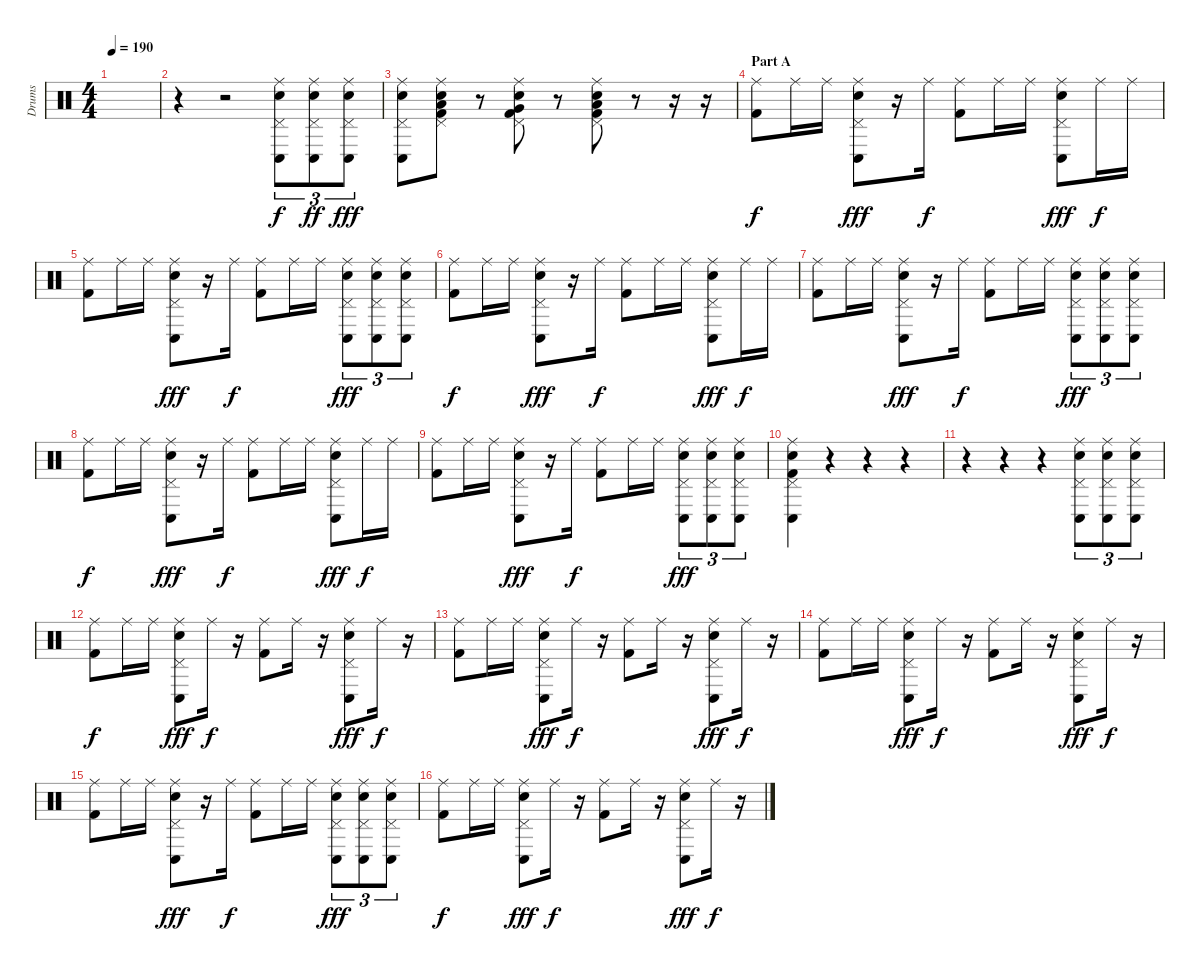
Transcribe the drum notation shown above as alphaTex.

\track ("Drums" "Drums") {instrument percussion}
\staff {score}
\articulation defaults
\ts (4 4)
\tempo 190
\clef neutral
\ks c
|
r.4 r.2 ("Ride (middle)" "Pedal Hi-Hat (hit)" "Conga low (hit)" "Electric Snare (hit)").8{tu (3 2)} ("Ride (middle)" "Pedal Hi-Hat (hit)" "Conga low (hit)" "Electric Snare (hit)").8{tu (3 2) dy ff} ("Ride (middle)" "Pedal Hi-Hat (hit)" "Conga low (hit)" "Electric Snare (hit)").8{tu (3 2) dy fff} |
("Ride (middle)" "Pedal Hi-Hat (hit)" "Conga low (hit)" "Electric Snare (hit)").8 ("Ride (middle)" "Pedal Hi-Hat (hit)" "Low Tom (hit)" "Electric Snare (hit)" "Kick (hit) 2").8 r.8 ("Ride (middle)" "Pedal Hi-Hat (hit)" "Very Low Tom (hit)" "Electric Snare (hit)" "Kick (hit) 2").8 r.8 ("Ride (middle)" "Pedal Hi-Hat (hit)" "Low Floor Tom (hit)" "Electric Snare (hit)" "Kick (hit) 2").8 r.8 r.16 r.16 |
\section ("" "Part A")
("Ride (middle)" "Kick (hit) 2").8{dy f} "Ride (middle)".16 "Ride (middle)".16 ("Ride (middle)" "Pedal Hi-Hat (hit)" "Conga low (hit)" "Electric Snare (hit)").8{dy fff} r.16 "Ride (middle)".16{dy f} ("Ride (middle)" "Kick (hit) 2").8 "Ride (middle)".16 "Ride (middle)".16 ("Ride (middle)" "Pedal Hi-Hat (hit)" "Conga low (hit)" "Electric Snare (hit)").8{dy fff} "Ride (middle)".16{dy f} "Ride (middle)".16 |
("Ride (middle)" "Kick (hit) 2").8 "Ride (middle)".16 "Ride (middle)".16 ("Ride (middle)" "Pedal Hi-Hat (hit)" "Conga low (hit)" "Electric Snare (hit)").8{dy fff} r.16 "Ride (middle)".16{dy f} ("Ride (middle)" "Kick (hit) 2").8 "Ride (middle)".16 "Ride (middle)".16 ("Ride (middle)" "Pedal Hi-Hat (hit)" "Conga low (hit)" "Electric Snare (hit)").8{tu (3 2) dy fff} ("Ride (middle)" "Pedal Hi-Hat (hit)" "Conga low (hit)" "Electric Snare (hit)").8{tu (3 2)} ("Ride (middle)" "Pedal Hi-Hat (hit)" "Conga low (hit)" "Electric Snare (hit)").8{tu (3 2)} |
("Ride (middle)" "Kick (hit) 2").8{dy f} "Ride (middle)".16 "Ride (middle)".16 ("Ride (middle)" "Pedal Hi-Hat (hit)" "Conga low (hit)" "Electric Snare (hit)").8{dy fff} r.16 "Ride (middle)".16{dy f} ("Ride (middle)" "Kick (hit) 2").8 "Ride (middle)".16 "Ride (middle)".16 ("Ride (middle)" "Pedal Hi-Hat (hit)" "Conga low (hit)" "Electric Snare (hit)").8{dy fff} "Ride (middle)".16{dy f} "Ride (middle)".16 |
("Ride (middle)" "Kick (hit) 2").8 "Ride (middle)".16 "Ride (middle)".16 ("Ride (middle)" "Pedal Hi-Hat (hit)" "Conga low (hit)" "Electric Snare (hit)").8{dy fff} r.16 "Ride (middle)".16{dy f} ("Ride (middle)" "Kick (hit) 2").8 "Ride (middle)".16 "Ride (middle)".16 ("Ride (middle)" "Pedal Hi-Hat (hit)" "Conga low (hit)" "Electric Snare (hit)").8{tu (3 2) dy fff} ("Ride (middle)" "Pedal Hi-Hat (hit)" "Conga low (hit)" "Electric Snare (hit)").8{tu (3 2)} ("Ride (middle)" "Pedal Hi-Hat (hit)" "Conga low (hit)" "Electric Snare (hit)").8{tu (3 2)} |
("Ride (middle)" "Kick (hit) 2").8{dy f} "Ride (middle)".16 "Ride (middle)".16 ("Ride (middle)" "Pedal Hi-Hat (hit)" "Conga low (hit)" "Electric Snare (hit)").8{dy fff} r.16 "Ride (middle)".16{dy f} ("Ride (middle)" "Kick (hit) 2").8 "Ride (middle)".16 "Ride (middle)".16 ("Ride (middle)" "Pedal Hi-Hat (hit)" "Conga low (hit)" "Electric Snare (hit)").8{dy fff} "Ride (middle)".16{dy f} "Ride (middle)".16 |
("Ride (middle)" "Kick (hit) 2").8 "Ride (middle)".16 "Ride (middle)".16 ("Ride (middle)" "Pedal Hi-Hat (hit)" "Conga low (hit)" "Electric Snare (hit)").8{dy fff} r.16 "Ride (middle)".16{dy f} ("Ride (middle)" "Kick (hit) 2").8 "Ride (middle)".16 "Ride (middle)".16 ("Ride (middle)" "Pedal Hi-Hat (hit)" "Conga low (hit)" "Electric Snare (hit)").8{tu (3 2) dy fff} ("Ride (middle)" "Pedal Hi-Hat (hit)" "Conga low (hit)" "Electric Snare (hit)").8{tu (3 2)} ("Ride (middle)" "Pedal Hi-Hat (hit)" "Conga low (hit)" "Electric Snare (hit)").8{tu (3 2)} |
("Ride (middle)" "Pedal Hi-Hat (hit)" "Conga low (hit)" "Electric Snare (hit)" "Kick (hit) 2").4 r.4 r.4 r.4 |
r.4 r.4 r.4 ("Ride (middle)" "Pedal Hi-Hat (hit)" "Conga low (hit)" "Electric Snare (hit)").8{tu (3 2)} ("Ride (middle)" "Pedal Hi-Hat (hit)" "Conga low (hit)" "Electric Snare (hit)").8{tu (3 2)} ("Ride (middle)" "Pedal Hi-Hat (hit)" "Conga low (hit)" "Electric Snare (hit)").8{tu (3 2)} |
("Ride (middle)" "Kick (hit) 2").8{dy f} "Ride (middle)".16 "Ride (middle)".16 ("Ride (middle)" "Pedal Hi-Hat (hit)" "Conga low (hit)" "Electric Snare (hit)").8{dy fff} "Ride (middle)".16{dy f} r.16 ("Ride (middle)" "Kick (hit) 2").8 "Ride (middle)".16 r.16 ("Ride (middle)" "Pedal Hi-Hat (hit)" "Conga low (hit)" "Electric Snare (hit)").8{dy fff} "Ride (middle)".16{dy f} r.16 |
("Ride (middle)" "Kick (hit) 2").8 "Ride (middle)".16 "Ride (middle)".16 ("Ride (middle)" "Pedal Hi-Hat (hit)" "Conga low (hit)" "Electric Snare (hit)").8{dy fff} "Ride (middle)".16{dy f} r.16 ("Ride (middle)" "Kick (hit) 2").8 "Ride (middle)".16 r.16 ("Ride (middle)" "Pedal Hi-Hat (hit)" "Conga low (hit)" "Electric Snare (hit)").8{dy fff} "Ride (middle)".16{dy f} r.16 |
("Ride (middle)" "Kick (hit) 2").8 "Ride (middle)".16 "Ride (middle)".16 ("Ride (middle)" "Pedal Hi-Hat (hit)" "Conga low (hit)" "Electric Snare (hit)").8{dy fff} "Ride (middle)".16{dy f} r.16 ("Ride (middle)" "Kick (hit) 2").8 "Ride (middle)".16 r.16 ("Ride (middle)" "Pedal Hi-Hat (hit)" "Conga low (hit)" "Electric Snare (hit)").8{dy fff} "Ride (middle)".16{dy f} r.16 |
("Ride (middle)" "Kick (hit) 2").8 "Ride (middle)".16 "Ride (middle)".16 ("Ride (middle)" "Pedal Hi-Hat (hit)" "Conga low (hit)" "Electric Snare (hit)").8{dy fff} r.16 "Ride (middle)".16{dy f} ("Ride (middle)" "Kick (hit) 2").8 "Ride (middle)".16 "Ride (middle)".16 ("Ride (middle)" "Pedal Hi-Hat (hit)" "Conga low (hit)" "Electric Snare (hit)").8{tu (3 2) dy fff} ("Ride (middle)" "Pedal Hi-Hat (hit)" "Conga low (hit)" "Electric Snare (hit)").8{tu (3 2)} ("Ride (middle)" "Pedal Hi-Hat (hit)" "Conga low (hit)" "Electric Snare (hit)").8{tu (3 2)} |
("Ride (middle)" "Kick (hit) 2").8{dy f} "Ride (middle)".16 "Ride (middle)".16 ("Ride (middle)" "Pedal Hi-Hat (hit)" "Conga low (hit)" "Electric Snare (hit)").8{dy fff} "Ride (middle)".16{dy f} r.16 ("Ride (middle)" "Kick (hit) 2").8 "Ride (middle)".16 r.16 ("Ride (middle)" "Pedal Hi-Hat (hit)" "Conga low (hit)" "Electric Snare (hit)").8{dy fff} "Ride (middle)".16{dy f} r.16
